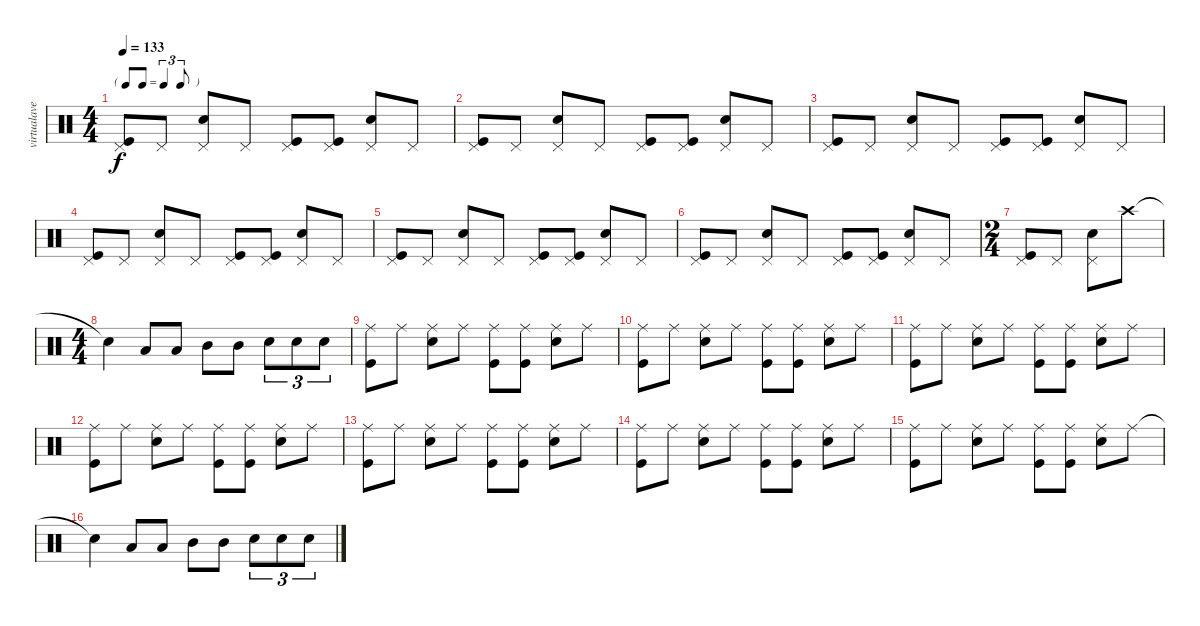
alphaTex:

\track ("virtualave.net" "virtualave") {instrument percussion}
\staff {score}
\articulation defaults
\ts (4 4)
\tf triplet8th
\tempo 133
\clef neutral
\ks c
("Pedal Hi-Hat (hit)" "Kick (hit)").8{dy f} "Pedal Hi-Hat (hit)".8 ("Pedal Hi-Hat (hit)" "Snare (hit) 2").8 "Pedal Hi-Hat (hit)".8 ("Pedal Hi-Hat (hit)" "Kick (hit)").8 ("Pedal Hi-Hat (hit)" "Kick (hit)").8 ("Pedal Hi-Hat (hit)" "Snare (hit) 2").8 "Pedal Hi-Hat (hit)".8 |
("Pedal Hi-Hat (hit)" "Kick (hit)").8 "Pedal Hi-Hat (hit)".8 ("Pedal Hi-Hat (hit)" "Snare (hit) 2").8 "Pedal Hi-Hat (hit)".8 ("Pedal Hi-Hat (hit)" "Kick (hit)").8 ("Pedal Hi-Hat (hit)" "Kick (hit)").8 ("Pedal Hi-Hat (hit)" "Snare (hit) 2").8 "Pedal Hi-Hat (hit)".8 |
("Pedal Hi-Hat (hit)" "Kick (hit)").8 "Pedal Hi-Hat (hit)".8 ("Pedal Hi-Hat (hit)" "Snare (hit) 2").8 "Pedal Hi-Hat (hit)".8 ("Pedal Hi-Hat (hit)" "Kick (hit)").8 ("Pedal Hi-Hat (hit)" "Kick (hit)").8 ("Pedal Hi-Hat (hit)" "Snare (hit) 2").8 "Pedal Hi-Hat (hit)".8 |
("Pedal Hi-Hat (hit)" "Kick (hit)").8 "Pedal Hi-Hat (hit)".8 ("Pedal Hi-Hat (hit)" "Snare (hit) 2").8 "Pedal Hi-Hat (hit)".8 ("Pedal Hi-Hat (hit)" "Kick (hit)").8 ("Pedal Hi-Hat (hit)" "Kick (hit)").8 ("Pedal Hi-Hat (hit)" "Snare (hit) 2").8 "Pedal Hi-Hat (hit)".8 |
("Pedal Hi-Hat (hit)" "Kick (hit)").8 "Pedal Hi-Hat (hit)".8 ("Pedal Hi-Hat (hit)" "Snare (hit) 2").8 "Pedal Hi-Hat (hit)".8 ("Pedal Hi-Hat (hit)" "Kick (hit)").8 ("Pedal Hi-Hat (hit)" "Kick (hit)").8 ("Pedal Hi-Hat (hit)" "Snare (hit) 2").8 "Pedal Hi-Hat (hit)".8 |
("Pedal Hi-Hat (hit)" "Kick (hit)").8 "Pedal Hi-Hat (hit)".8 ("Pedal Hi-Hat (hit)" "Snare (hit) 2").8 "Pedal Hi-Hat (hit)".8 ("Pedal Hi-Hat (hit)" "Kick (hit)").8 ("Pedal Hi-Hat (hit)" "Kick (hit)").8 ("Pedal Hi-Hat (hit)" "Snare (hit) 2").8 "Pedal Hi-Hat (hit)".8 |
\ts (2 4)
("Pedal Hi-Hat (hit)" "Kick (hit)").8 "Pedal Hi-Hat (hit)".8 ("Pedal Hi-Hat (hit)" "Snare (hit) 2").8 "Crash high (hit)".8 |
\ts (4 4)
"Snare (hit)"{t}.4 "Low Tom (hit)".8 "Low Tom (hit)".8 "Mid Tom (hit)".8 "Mid Tom (hit)".8 "Snare (hit) 2".8{tu (3 2)} "Snare (hit) 2".8{tu (3 2)} "Snare (hit) 2".8{tu (3 2)} |
("Ride (middle)" "Kick (hit)").8 "Ride (middle)".8 ("Ride (middle)" "Snare (hit) 2").8 "Ride (middle)".8 ("Ride (middle)" "Kick (hit)").8 ("Ride (middle)" "Kick (hit)").8 ("Ride (middle)" "Snare (hit) 2").8 "Ride (middle)".8 |
("Ride (middle)" "Kick (hit)").8 "Ride (middle)".8 ("Ride (middle)" "Snare (hit) 2").8 "Ride (middle)".8 ("Ride (middle)" "Kick (hit)").8 ("Ride (middle)" "Kick (hit)").8 ("Ride (middle)" "Snare (hit) 2").8 "Ride (middle)".8 |
("Ride (middle)" "Kick (hit)").8 "Ride (middle)".8 ("Ride (middle)" "Snare (hit) 2").8 "Ride (middle)".8 ("Ride (middle)" "Kick (hit)").8 ("Ride (middle)" "Kick (hit)").8 ("Ride (middle)" "Snare (hit) 2").8 "Ride (middle)".8 |
("Ride (middle)" "Kick (hit)").8 "Ride (middle)".8 ("Ride (middle)" "Snare (hit) 2").8 "Ride (middle)".8 ("Ride (middle)" "Kick (hit)").8 ("Ride (middle)" "Kick (hit)").8 ("Ride (middle)" "Snare (hit) 2").8 "Ride (middle)".8 |
("Ride (middle)" "Kick (hit)").8 "Ride (middle)".8 ("Ride (middle)" "Snare (hit) 2").8 "Ride (middle)".8 ("Ride (middle)" "Kick (hit)").8 ("Ride (middle)" "Kick (hit)").8 ("Ride (middle)" "Snare (hit) 2").8 "Ride (middle)".8 |
("Ride (middle)" "Kick (hit)").8 "Ride (middle)".8 ("Ride (middle)" "Snare (hit) 2").8 "Ride (middle)".8 ("Ride (middle)" "Kick (hit)").8 ("Ride (middle)" "Kick (hit)").8 ("Ride (middle)" "Snare (hit) 2").8 "Ride (middle)".8 |
("Ride (middle)" "Kick (hit)").8 "Ride (middle)".8 ("Ride (middle)" "Snare (hit) 2").8 "Ride (middle)".8 ("Ride (middle)" "Kick (hit)").8 ("Ride (middle)" "Kick (hit)").8 ("Ride (middle)" "Snare (hit) 2").8 "Ride (middle)".8 |
"Snare (hit)"{t}.4 "Low Tom (hit)".8 "Low Tom (hit)".8 "Mid Tom (hit)".8 "Mid Tom (hit)".8 "Snare (hit) 2".8{tu (3 2)} "Snare (hit) 2".8{tu (3 2)} "Snare (hit) 2".8{tu (3 2)}
